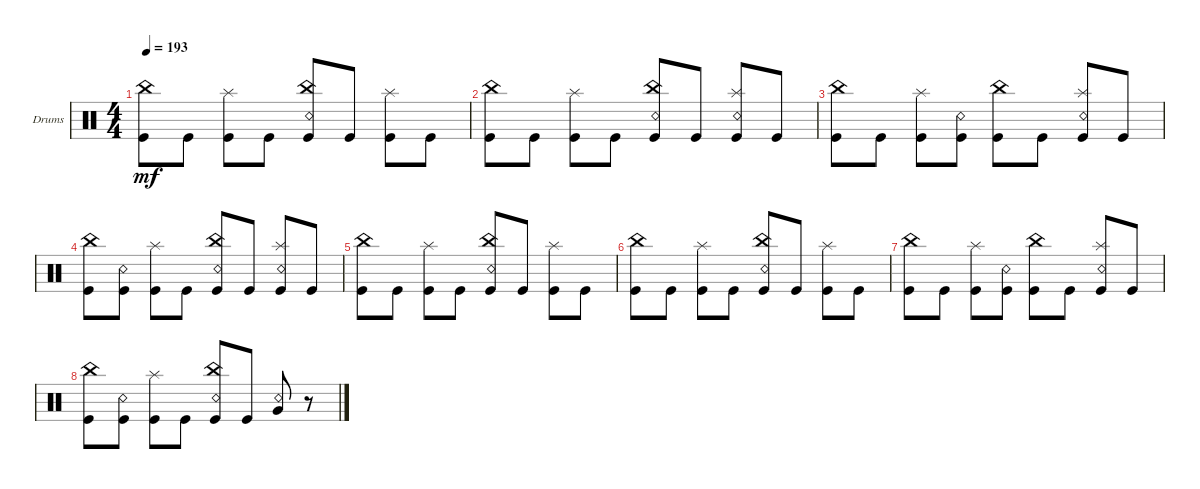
\defaultSystemsLayout 4
\bracketExtendMode groupsimilarinstruments
\firstSystemTrackNameOrientation horizontal
\otherSystemsTrackNameOrientation horizontal
\track ("Drumkit" "Drums") {multiBarRest instrument percussion}
\staff {score}
\articulation defaults
\ts (4 4)
\tempo 193
\clef neutral
\scale
0.333333
\ks c
("Kick (hit)" "China (hit)").8{dy mf} "Kick (hit)".8 ("Kick (hit)" "Splash (hit)").8 "Kick (hit)".8 ("Kick (hit)" "China (hit)" "Snare (rim shot)").8 "Kick (hit)".8 ("Kick (hit)" "Splash (hit)").8 "Kick (hit)".8 |
\scale
0.333333 ("Kick (hit)" "China (hit)").8 "Kick (hit)".8 ("Kick (hit)" "Splash (hit)").8 "Kick (hit)".8 ("Kick (hit)" "Snare (rim shot)" "China (hit)").8 "Kick (hit)".8 ("Kick (hit)" "Snare (rim shot)" "Splash (hit)").8 "Kick (hit)".8 |
\scale
0.333333 ("Kick (hit)" "China (hit)").8 "Kick (hit)".8 ("Kick (hit)" "Splash (hit)").8 ("Kick (hit)" "Snare (rim shot)").8 ("Kick (hit)" "China (hit)").8 "Kick (hit)".8 ("Kick (hit)" "Snare (rim shot)" "Splash (hit)").8 "Kick (hit)".8 |
\scale
0.333333 ("Kick (hit)" "China (hit)").8 ("Snare (rim shot)" "Kick (hit)").8 ("Kick (hit)" "Splash (hit)").8 "Kick (hit)".8 ("Kick (hit)" "Snare (rim shot)" "China (hit)").8 "Kick (hit)".8 ("Kick (hit)" "Snare (rim shot)" "Splash (hit)").8 "Kick (hit)".8 |
\scale
0.333333 ("Kick (hit)" "China (hit)").8 "Kick (hit)".8 ("Kick (hit)" "Splash (hit)").8 "Kick (hit)".8 ("Kick (hit)" "China (hit)" "Snare (rim shot)").8 "Kick (hit)".8 ("Kick (hit)" "Splash (hit)").8 "Kick (hit)".8 |
\scale
0.333333 ("Kick (hit)" "China (hit)").8 "Kick (hit)".8 ("Kick (hit)" "Splash (hit)").8 "Kick (hit)".8 ("Kick (hit)" "Snare (rim shot)" "China (hit)").8 "Kick (hit)".8 ("Kick (hit)" "Splash (hit)").8 "Kick (hit)".8 |
\scale
0.333333 ("Kick (hit)" "China (hit)").8 "Kick (hit)".8 ("Kick (hit)" "Splash (hit)").8 ("Kick (hit)" "Snare (rim shot)").8 ("Kick (hit)" "China (hit)").8 "Kick (hit)".8 ("Kick (hit)" "Snare (rim shot)" "Splash (hit)").8 "Kick (hit)".8 |
\scale
0.333333 ("Kick (hit)" "China (hit)").8 ("Snare (rim shot)" "Kick (hit)").8 ("Kick (hit)" "Splash (hit)").8 "Kick (hit)".8 ("Kick (hit)" "Snare (rim shot)" "China (hit)").8 "Kick (hit)".8 ("Snare (rim shot)" "Very Low Tom (hit)").8 r.8
